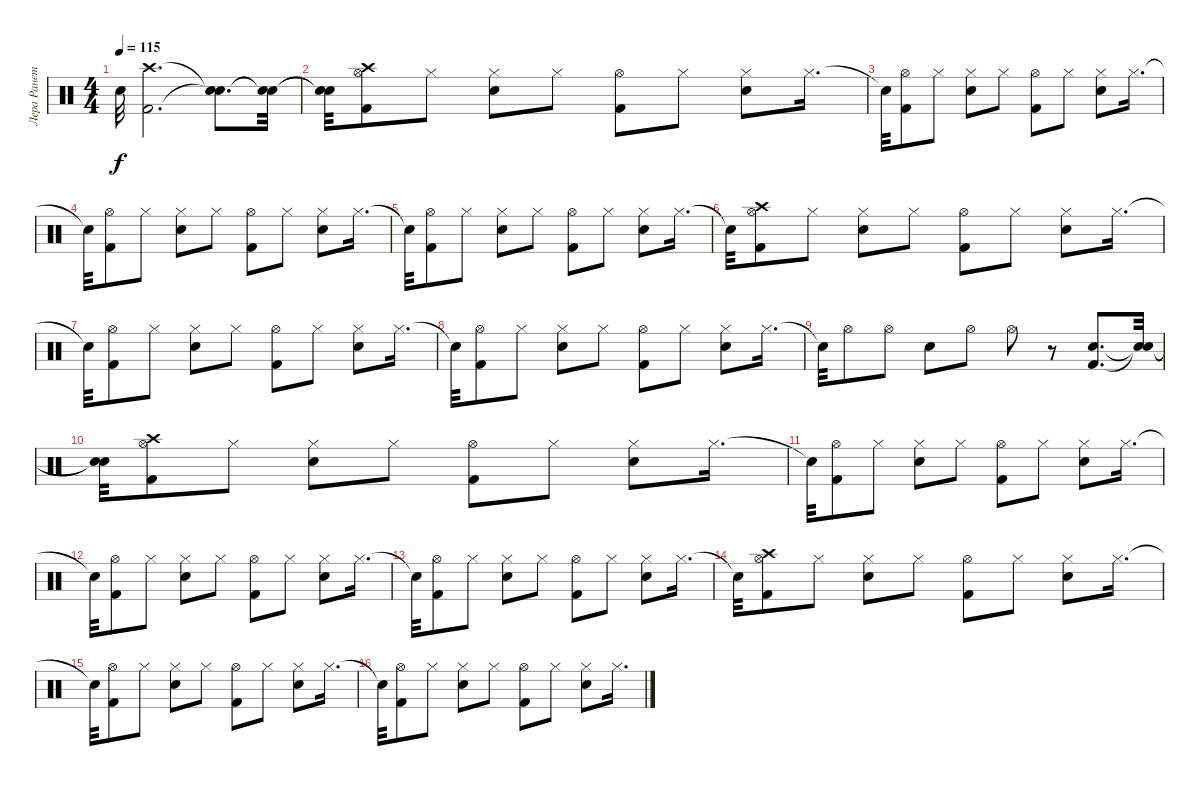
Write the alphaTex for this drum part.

\track ("Лера Ранетка" "Лера Ранет") {instrument percussion}
\staff {score}
\articulation defaults
\ts (4 4)
\tempo 115
\clef neutral
\ks c "Snare (hit)"{t}.32{dy f}
("Crash high (hit)" "Kick (hit) 2").2{d} ("Snare (hit)"{t} "Snare (hit)"{t}).8{d} ("Snare (hit)"{t} "Snare (hit)"{t}).32 |
("Snare (hit)"{t} "Snare (hit)"{t}).32 ("Hi-Hat (open)" "Kick (hit) 2" "Crash high (hit)").8 "Hi-Hat (closed)".8 ("Hi-Hat (closed)" "Electric Snare (hit)").8 "Hi-Hat (closed)".8 ("Hi-Hat (open)" "Kick (hit) 2").8 "Hi-Hat (closed)".8 ("Hi-Hat (closed)" "Electric Snare (hit)").8 "Hi-Hat (closed)".16{d} |
"Snare (hit)"{t}.32 ("Hi-Hat (open)" "Kick (hit) 2").8 "Hi-Hat (closed)".8 ("Hi-Hat (closed)" "Electric Snare (hit)").8 "Hi-Hat (closed)".8 ("Hi-Hat (open)" "Kick (hit) 2").8 "Hi-Hat (closed)".8 ("Hi-Hat (closed)" "Electric Snare (hit)").8 "Hi-Hat (closed)".16{d} |
"Snare (hit)"{t}.32 ("Hi-Hat (open)" "Kick (hit) 2").8 "Hi-Hat (closed)".8 ("Hi-Hat (closed)" "Electric Snare (hit)").8 "Hi-Hat (closed)".8 ("Hi-Hat (open)" "Kick (hit) 2").8 "Hi-Hat (closed)".8 ("Hi-Hat (closed)" "Electric Snare (hit)").8 "Hi-Hat (closed)".16{d} |
"Snare (hit)"{t}.32 ("Hi-Hat (open)" "Kick (hit) 2").8 "Hi-Hat (closed)".8 ("Hi-Hat (closed)" "Electric Snare (hit)").8 "Hi-Hat (closed)".8 ("Hi-Hat (open)" "Kick (hit) 2").8 "Hi-Hat (closed)".8 ("Hi-Hat (closed)" "Electric Snare (hit)").8 "Hi-Hat (closed)".16{d} |
"Snare (hit)"{t}.32 ("Hi-Hat (open)" "Kick (hit) 2" "Crash high (hit)").8 "Hi-Hat (closed)".8 ("Hi-Hat (closed)" "Electric Snare (hit)").8 "Hi-Hat (closed)".8 ("Hi-Hat (open)" "Kick (hit) 2").8 "Hi-Hat (closed)".8 ("Hi-Hat (closed)" "Electric Snare (hit)").8 "Hi-Hat (closed)".16{d} |
"Snare (hit)"{t}.32 ("Hi-Hat (open)" "Kick (hit) 2").8 "Hi-Hat (closed)".8 ("Hi-Hat (closed)" "Electric Snare (hit)").8 "Hi-Hat (closed)".8 ("Hi-Hat (open)" "Kick (hit) 2").8 "Hi-Hat (closed)".8 ("Hi-Hat (closed)" "Electric Snare (hit)").8 "Hi-Hat (closed)".16{d} |
"Snare (hit)"{t}.32 ("Hi-Hat (open)" "Kick (hit) 2").8 "Hi-Hat (closed)".8 ("Hi-Hat (closed)" "Electric Snare (hit)").8 "Hi-Hat (closed)".8 ("Hi-Hat (open)" "Kick (hit) 2").8 "Hi-Hat (closed)".8 ("Hi-Hat (closed)" "Electric Snare (hit)").8 "Hi-Hat (closed)".16{d} |
"Snare (hit)"{t}.32 "Hi-Hat (open)".8 "Hi-Hat (open)".8 "Electric Snare (hit)".8 "Hi-Hat (open)".8 "Hi-Hat (open)".8 r.8 ("Electric Snare (hit)" "Kick (hit) 2").8{d} ("Snare (hit)"{t} "Snare (hit)"{t}).32 |
("Snare (hit)"{t} "Snare (hit)"{t}).32 ("Hi-Hat (open)" "Kick (hit) 2" "Crash high (hit)").8 "Hi-Hat (closed)".8 ("Hi-Hat (closed)" "Electric Snare (hit)").8 "Hi-Hat (closed)".8 ("Hi-Hat (open)" "Kick (hit) 2").8 "Hi-Hat (closed)".8 ("Hi-Hat (closed)" "Electric Snare (hit)").8 "Hi-Hat (closed)".16{d} |
"Snare (hit)"{t}.32 ("Hi-Hat (open)" "Kick (hit) 2").8 "Hi-Hat (closed)".8 ("Hi-Hat (closed)" "Electric Snare (hit)").8 "Hi-Hat (closed)".8 ("Hi-Hat (open)" "Kick (hit) 2").8 "Hi-Hat (closed)".8 ("Hi-Hat (closed)" "Electric Snare (hit)").8 "Hi-Hat (closed)".16{d} |
"Snare (hit)"{t}.32 ("Hi-Hat (open)" "Kick (hit) 2").8 "Hi-Hat (closed)".8 ("Hi-Hat (closed)" "Electric Snare (hit)").8 "Hi-Hat (closed)".8 ("Hi-Hat (open)" "Kick (hit) 2").8 "Hi-Hat (closed)".8 ("Hi-Hat (closed)" "Electric Snare (hit)").8 "Hi-Hat (closed)".16{d} |
"Snare (hit)"{t}.32 ("Hi-Hat (open)" "Kick (hit) 2").8 "Hi-Hat (closed)".8 ("Hi-Hat (closed)" "Electric Snare (hit)").8 "Hi-Hat (closed)".8 ("Hi-Hat (open)" "Kick (hit) 2").8 "Hi-Hat (closed)".8 ("Hi-Hat (closed)" "Electric Snare (hit)").8 "Hi-Hat (closed)".16{d} |
"Snare (hit)"{t}.32 ("Hi-Hat (open)" "Kick (hit) 2" "Crash high (hit)").8 "Hi-Hat (closed)".8 ("Hi-Hat (closed)" "Electric Snare (hit)").8 "Hi-Hat (closed)".8 ("Hi-Hat (open)" "Kick (hit) 2").8 "Hi-Hat (closed)".8 ("Hi-Hat (closed)" "Electric Snare (hit)").8 "Hi-Hat (closed)".16{d} |
"Snare (hit)"{t}.32 ("Hi-Hat (open)" "Kick (hit) 2").8 "Hi-Hat (closed)".8 ("Hi-Hat (closed)" "Electric Snare (hit)").8 "Hi-Hat (closed)".8 ("Hi-Hat (open)" "Kick (hit) 2").8 "Hi-Hat (closed)".8 ("Hi-Hat (closed)" "Electric Snare (hit)").8 "Hi-Hat (closed)".16{d} |
"Snare (hit)"{t}.32 ("Hi-Hat (open)" "Kick (hit) 2").8 "Hi-Hat (closed)".8 ("Hi-Hat (closed)" "Electric Snare (hit)").8 "Hi-Hat (closed)".8 ("Hi-Hat (open)" "Kick (hit) 2").8 "Hi-Hat (closed)".8 ("Hi-Hat (closed)" "Electric Snare (hit)").8 "Hi-Hat (closed)".16{d}
